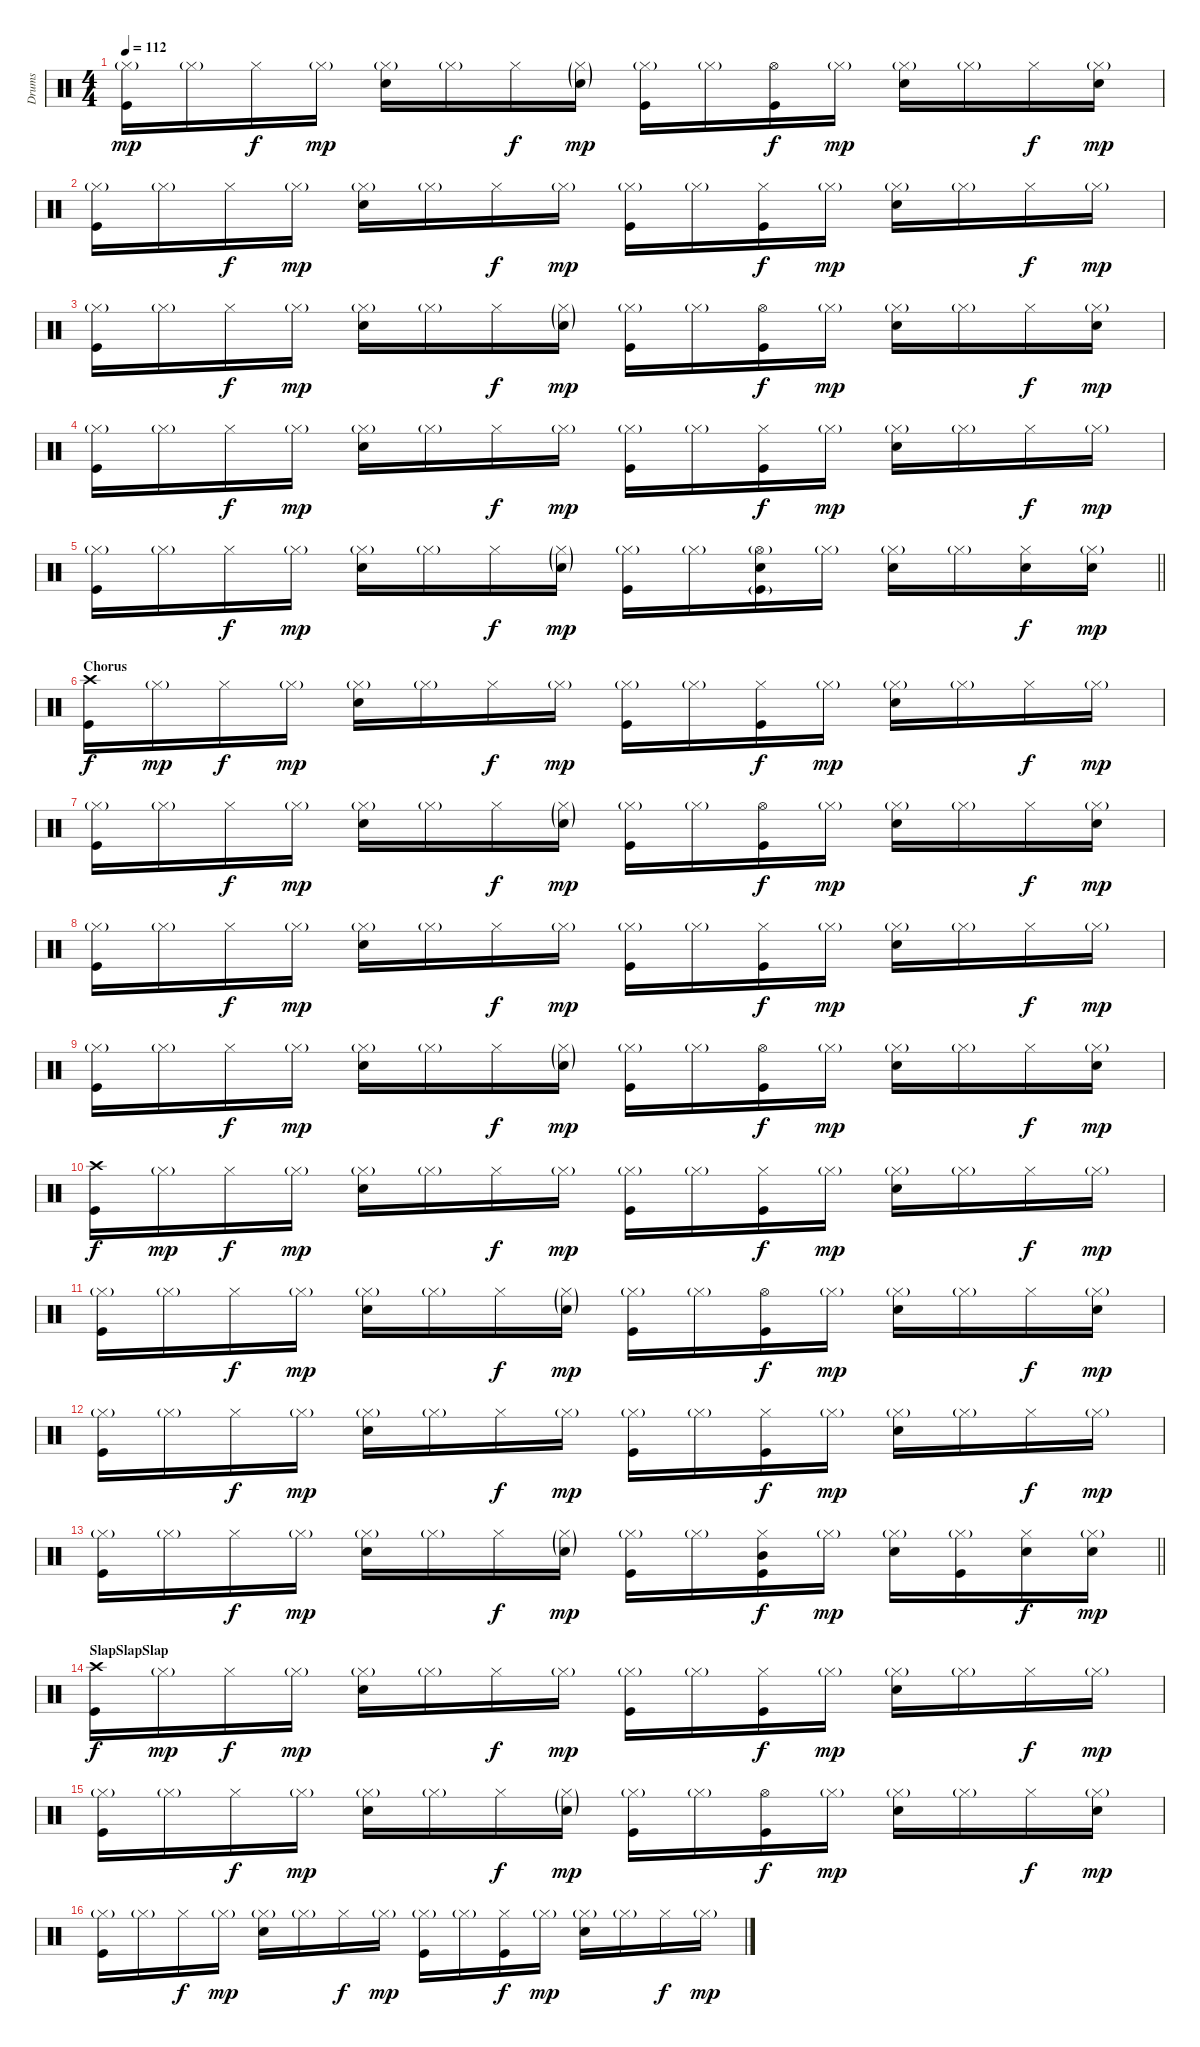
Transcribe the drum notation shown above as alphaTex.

\track ("Drums" "Drums") {instrument percussion}
\staff {score}
\articulation defaults
\ts (4 4)
\tempo 112
\clef neutral
\ks c
("Hi-Hat (closed)"{g} "Kick (hit)").16{dy mp} "Hi-Hat (closed)"{g}.16 "Hi-Hat (closed)".16{dy f} "Hi-Hat (closed)"{g}.16{dy mp} ("Hi-Hat (closed)"{g} "Snare (hit) 2").16 "Hi-Hat (closed)"{g}.16 "Hi-Hat (closed)".16{dy f} ("Hi-Hat (closed)"{g} "Snare (hit) 2"{g}).16{dy mp} ("Hi-Hat (closed)"{g} "Kick (hit)").16 "Hi-Hat (closed)"{g}.16 ("Hi-Hat (open)" "Kick (hit)").16{dy f} "Hi-Hat (closed)"{g}.16{dy mp} ("Hi-Hat (closed)"{g} "Snare (hit) 2").16 "Hi-Hat (closed)"{g}.16 "Hi-Hat (closed)".16{dy f} ("Hi-Hat (closed)"{g} "Snare (hit) 2").16{dy mp} |
("Hi-Hat (closed)"{g} "Kick (hit)").16 "Hi-Hat (closed)"{g}.16 "Hi-Hat (closed)".16{dy f} "Hi-Hat (closed)"{g}.16{dy mp} ("Hi-Hat (closed)"{g} "Snare (hit) 2").16 "Hi-Hat (closed)"{g}.16 "Hi-Hat (closed)".16{dy f} "Hi-Hat (closed)"{g}.16{dy mp} ("Hi-Hat (closed)"{g} "Kick (hit)").16 "Hi-Hat (closed)"{g}.16 ("Hi-Hat (closed)" "Kick (hit)").16{dy f} "Hi-Hat (closed)"{g}.16{dy mp} ("Hi-Hat (closed)"{g} "Snare (hit) 2").16 "Hi-Hat (closed)"{g}.16 "Hi-Hat (closed)".16{dy f} "Hi-Hat (closed)"{g}.16{dy mp} |
("Hi-Hat (closed)"{g} "Kick (hit)").16 "Hi-Hat (closed)"{g}.16 "Hi-Hat (closed)".16{dy f} "Hi-Hat (closed)"{g}.16{dy mp} ("Hi-Hat (closed)"{g} "Snare (hit) 2").16 "Hi-Hat (closed)"{g}.16 "Hi-Hat (closed)".16{dy f} ("Hi-Hat (closed)"{g} "Snare (hit) 2"{g}).16{dy mp} ("Hi-Hat (closed)"{g} "Kick (hit)").16 "Hi-Hat (closed)"{g}.16 ("Hi-Hat (open)" "Kick (hit)").16{dy f} "Hi-Hat (closed)"{g}.16{dy mp} ("Hi-Hat (closed)"{g} "Snare (hit) 2").16 "Hi-Hat (closed)"{g}.16 "Hi-Hat (closed)".16{dy f} ("Hi-Hat (closed)"{g} "Snare (hit) 2").16{dy mp} |
("Hi-Hat (closed)"{g} "Kick (hit)").16 "Hi-Hat (closed)"{g}.16 "Hi-Hat (closed)".16{dy f} "Hi-Hat (closed)"{g}.16{dy mp} ("Hi-Hat (closed)"{g} "Snare (hit) 2").16 "Hi-Hat (closed)"{g}.16 "Hi-Hat (closed)".16{dy f} "Hi-Hat (closed)"{g}.16{dy mp} ("Hi-Hat (closed)"{g} "Kick (hit)").16 "Hi-Hat (closed)"{g}.16 ("Hi-Hat (closed)" "Kick (hit)").16{dy f} "Hi-Hat (closed)"{g}.16{dy mp} ("Hi-Hat (closed)"{g} "Snare (hit) 2").16 "Hi-Hat (closed)"{g}.16 "Hi-Hat (closed)".16{dy f} "Hi-Hat (closed)"{g}.16{dy mp} |
\barLineRight lightlight
("Hi-Hat (closed)"{g} "Kick (hit)").16 "Hi-Hat (closed)"{g}.16 "Hi-Hat (closed)".16{dy f} "Hi-Hat (closed)"{g}.16{dy mp} ("Hi-Hat (closed)"{g} "Snare (hit) 2").16 "Hi-Hat (closed)"{g}.16 "Hi-Hat (closed)".16{dy f} ("Hi-Hat (closed)"{g} "Snare (hit) 2"{g}).16{dy mp} ("Hi-Hat (closed)"{g} "Kick (hit)").16 "Hi-Hat (closed)"{g}.16 ("Hi-Hat (open)"{g} "Snare (hit) 2" "Kick (hit)"{g}).16 "Hi-Hat (closed)"{g}.16 ("Hi-Hat (closed)"{g} "Snare (hit) 2").16 "Hi-Hat (closed)"{g}.16 ("Hi-Hat (closed)" "Snare (hit) 2").16{dy f} ("Hi-Hat (closed)"{g} "Snare (hit) 2").16{dy mp} |
\section ("" "Chorus")
("Crash high (hit)" "Kick (hit)").16{dy f} "Hi-Hat (closed)"{g}.16{dy mp} "Hi-Hat (closed)".16{dy f} "Hi-Hat (closed)"{g}.16{dy mp} ("Hi-Hat (closed)"{g} "Snare (hit) 2").16 "Hi-Hat (closed)"{g}.16 "Hi-Hat (closed)".16{dy f} "Hi-Hat (closed)"{g}.16{dy mp} ("Hi-Hat (closed)"{g} "Kick (hit)").16 "Hi-Hat (closed)"{g}.16 ("Hi-Hat (closed)" "Kick (hit)").16{dy f} "Hi-Hat (closed)"{g}.16{dy mp} ("Hi-Hat (closed)"{g} "Snare (hit) 2").16 "Hi-Hat (closed)"{g}.16 "Hi-Hat (closed)".16{dy f} "Hi-Hat (closed)"{g}.16{dy mp} |
("Hi-Hat (closed)"{g} "Kick (hit)").16 "Hi-Hat (closed)"{g}.16 "Hi-Hat (closed)".16{dy f} "Hi-Hat (closed)"{g}.16{dy mp} ("Hi-Hat (closed)"{g} "Snare (hit) 2").16 "Hi-Hat (closed)"{g}.16 "Hi-Hat (closed)".16{dy f} ("Hi-Hat (closed)"{g} "Snare (hit) 2"{g}).16{dy mp} ("Hi-Hat (closed)"{g} "Kick (hit)").16 "Hi-Hat (closed)"{g}.16 ("Hi-Hat (open)" "Kick (hit)").16{dy f} "Hi-Hat (closed)"{g}.16{dy mp} ("Hi-Hat (closed)"{g} "Snare (hit) 2").16 "Hi-Hat (closed)"{g}.16 "Hi-Hat (closed)".16{dy f} ("Hi-Hat (closed)"{g} "Snare (hit) 2").16{dy mp} |
("Hi-Hat (closed)"{g} "Kick (hit)").16 "Hi-Hat (closed)"{g}.16 "Hi-Hat (closed)".16{dy f} "Hi-Hat (closed)"{g}.16{dy mp} ("Hi-Hat (closed)"{g} "Snare (hit) 2").16 "Hi-Hat (closed)"{g}.16 "Hi-Hat (closed)".16{dy f} "Hi-Hat (closed)"{g}.16{dy mp} ("Hi-Hat (closed)"{g} "Kick (hit)").16 "Hi-Hat (closed)"{g}.16 ("Hi-Hat (closed)" "Kick (hit)").16{dy f} "Hi-Hat (closed)"{g}.16{dy mp} ("Hi-Hat (closed)"{g} "Snare (hit) 2").16 "Hi-Hat (closed)"{g}.16 "Hi-Hat (closed)".16{dy f} "Hi-Hat (closed)"{g}.16{dy mp} |
("Hi-Hat (closed)"{g} "Kick (hit)").16 "Hi-Hat (closed)"{g}.16 "Hi-Hat (closed)".16{dy f} "Hi-Hat (closed)"{g}.16{dy mp} ("Hi-Hat (closed)"{g} "Snare (hit) 2").16 "Hi-Hat (closed)"{g}.16 "Hi-Hat (closed)".16{dy f} ("Hi-Hat (closed)"{g} "Snare (hit) 2"{g}).16{dy mp} ("Hi-Hat (closed)"{g} "Kick (hit)").16 "Hi-Hat (closed)"{g}.16 ("Hi-Hat (open)" "Kick (hit)").16{dy f} "Hi-Hat (closed)"{g}.16{dy mp} ("Hi-Hat (closed)"{g} "Snare (hit) 2").16 "Hi-Hat (closed)"{g}.16 "Hi-Hat (closed)".16{dy f} ("Hi-Hat (closed)"{g} "Snare (hit) 2").16{dy mp} |
("Crash high (hit)" "Kick (hit)").16{dy f} "Hi-Hat (closed)"{g}.16{dy mp} "Hi-Hat (closed)".16{dy f} "Hi-Hat (closed)"{g}.16{dy mp} ("Hi-Hat (closed)"{g} "Snare (hit) 2").16 "Hi-Hat (closed)"{g}.16 "Hi-Hat (closed)".16{dy f} "Hi-Hat (closed)"{g}.16{dy mp} ("Hi-Hat (closed)"{g} "Kick (hit)").16 "Hi-Hat (closed)"{g}.16 ("Hi-Hat (closed)" "Kick (hit)").16{dy f} "Hi-Hat (closed)"{g}.16{dy mp} ("Hi-Hat (closed)"{g} "Snare (hit) 2").16 "Hi-Hat (closed)"{g}.16 "Hi-Hat (closed)".16{dy f} "Hi-Hat (closed)"{g}.16{dy mp} |
("Hi-Hat (closed)"{g} "Kick (hit)").16 "Hi-Hat (closed)"{g}.16 "Hi-Hat (closed)".16{dy f} "Hi-Hat (closed)"{g}.16{dy mp} ("Hi-Hat (closed)"{g} "Snare (hit) 2").16 "Hi-Hat (closed)"{g}.16 "Hi-Hat (closed)".16{dy f} ("Hi-Hat (closed)"{g} "Snare (hit) 2"{g}).16{dy mp} ("Hi-Hat (closed)"{g} "Kick (hit)").16 "Hi-Hat (closed)"{g}.16 ("Hi-Hat (open)" "Kick (hit)").16{dy f} "Hi-Hat (closed)"{g}.16{dy mp} ("Hi-Hat (closed)"{g} "Snare (hit) 2").16 "Hi-Hat (closed)"{g}.16 "Hi-Hat (closed)".16{dy f} ("Hi-Hat (closed)"{g} "Snare (hit) 2").16{dy mp} |
("Hi-Hat (closed)"{g} "Kick (hit)").16 "Hi-Hat (closed)"{g}.16 "Hi-Hat (closed)".16{dy f} "Hi-Hat (closed)"{g}.16{dy mp} ("Hi-Hat (closed)"{g} "Snare (hit) 2").16 "Hi-Hat (closed)"{g}.16 "Hi-Hat (closed)".16{dy f} "Hi-Hat (closed)"{g}.16{dy mp} ("Hi-Hat (closed)"{g} "Kick (hit)").16 "Hi-Hat (closed)"{g}.16 ("Hi-Hat (closed)" "Kick (hit)").16{dy f} "Hi-Hat (closed)"{g}.16{dy mp} ("Hi-Hat (closed)"{g} "Snare (hit) 2").16 "Hi-Hat (closed)"{g}.16 "Hi-Hat (closed)".16{dy f} "Hi-Hat (closed)"{g}.16{dy mp} |
\barLineRight lightlight
("Hi-Hat (closed)"{g} "Kick (hit)").16 "Hi-Hat (closed)"{g}.16 "Hi-Hat (closed)".16{dy f} "Hi-Hat (closed)"{g}.16{dy mp} ("Hi-Hat (closed)"{g} "Snare (hit) 2").16 "Hi-Hat (closed)"{g}.16 "Hi-Hat (closed)".16{dy f} ("Hi-Hat (closed)"{g} "Snare (hit) 2"{g}).16{dy mp} ("Hi-Hat (closed)"{g} "Kick (hit)").16 "Hi-Hat (closed)"{g}.16 ("Hi-Hat (closed)" "Mid Tom (hit)" "Kick (hit)").16{dy f} "Hi-Hat (closed)"{g}.16{dy mp} ("Hi-Hat (closed)"{g} "Snare (hit) 2").16 ("Hi-Hat (closed)"{g} "Kick (hit)").16 ("Hi-Hat (closed)" "Snare (hit) 2").16{dy f} ("Hi-Hat (closed)"{g} "Snare (hit) 2").16{dy mp} |
\section ("" "SlapSlapSlap")
("Crash high (hit)" "Kick (hit)").16{dy f} "Hi-Hat (closed)"{g}.16{dy mp} "Hi-Hat (closed)".16{dy f} "Hi-Hat (closed)"{g}.16{dy mp} ("Hi-Hat (closed)"{g} "Snare (hit) 2").16 "Hi-Hat (closed)"{g}.16 "Hi-Hat (closed)".16{dy f} "Hi-Hat (closed)"{g}.16{dy mp} ("Hi-Hat (closed)"{g} "Kick (hit)").16 "Hi-Hat (closed)"{g}.16 ("Hi-Hat (closed)" "Kick (hit)").16{dy f} "Hi-Hat (closed)"{g}.16{dy mp} ("Hi-Hat (closed)"{g} "Snare (hit) 2").16 "Hi-Hat (closed)"{g}.16 "Hi-Hat (closed)".16{dy f} "Hi-Hat (closed)"{g}.16{dy mp} |
("Hi-Hat (closed)"{g} "Kick (hit)").16 "Hi-Hat (closed)"{g}.16 "Hi-Hat (closed)".16{dy f} "Hi-Hat (closed)"{g}.16{dy mp} ("Hi-Hat (closed)"{g} "Snare (hit) 2").16 "Hi-Hat (closed)"{g}.16 "Hi-Hat (closed)".16{dy f} ("Hi-Hat (closed)"{g} "Snare (hit) 2"{g}).16{dy mp} ("Hi-Hat (closed)"{g} "Kick (hit)").16 "Hi-Hat (closed)"{g}.16 ("Hi-Hat (open)" "Kick (hit)").16{dy f} "Hi-Hat (closed)"{g}.16{dy mp} ("Hi-Hat (closed)"{g} "Snare (hit) 2").16 "Hi-Hat (closed)"{g}.16 "Hi-Hat (closed)".16{dy f} ("Hi-Hat (closed)"{g} "Snare (hit) 2").16{dy mp} |
("Hi-Hat (closed)"{g} "Kick (hit)").16 "Hi-Hat (closed)"{g}.16 "Hi-Hat (closed)".16{dy f} "Hi-Hat (closed)"{g}.16{dy mp} ("Hi-Hat (closed)"{g} "Snare (hit) 2").16 "Hi-Hat (closed)"{g}.16 "Hi-Hat (closed)".16{dy f} "Hi-Hat (closed)"{g}.16{dy mp} ("Hi-Hat (closed)"{g} "Kick (hit)").16 "Hi-Hat (closed)"{g}.16 ("Hi-Hat (closed)" "Kick (hit)").16{dy f} "Hi-Hat (closed)"{g}.16{dy mp} ("Hi-Hat (closed)"{g} "Snare (hit) 2").16 "Hi-Hat (closed)"{g}.16 "Hi-Hat (closed)".16{dy f} "Hi-Hat (closed)"{g}.16{dy mp}
